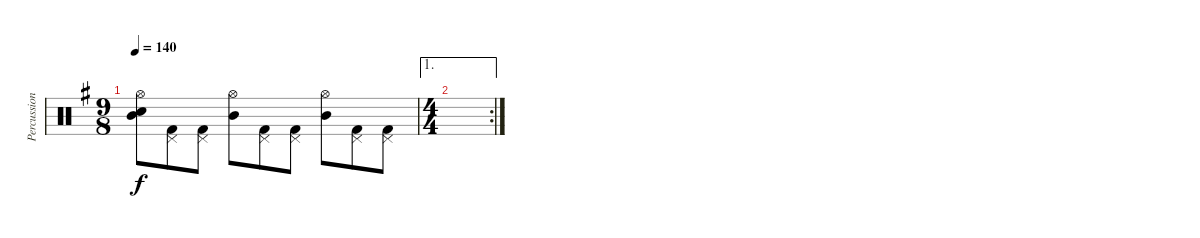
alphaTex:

\track ("Percussion" "Percussion") {instrument percussion}
\staff {score}
\articulation defaults
\ts (9 8)
\tempo 140
\clef neutral
\ks g
("Hi-Hat (open)" "Electric Snare (hit)" "Mid Tom (hit)").8{dy f} ("Kick (hit) 2" "Pedal Hi-Hat (hit)").8 ("Kick (hit) 2" "Pedal Hi-Hat (hit)").8 ("Hi-Hat (open)" "Mid Tom (hit)").8 ("Kick (hit) 2" "Pedal Hi-Hat (hit)").8 ("Kick (hit) 2" "Pedal Hi-Hat (hit)").8 ("Hi-Hat (open)" "Mid Tom (hit)").8 ("Kick (hit) 2" "Pedal Hi-Hat (hit)").8 ("Kick (hit) 2" "Pedal Hi-Hat (hit)").8 |
\ae 1
\rc 2
\ts (4 4)
